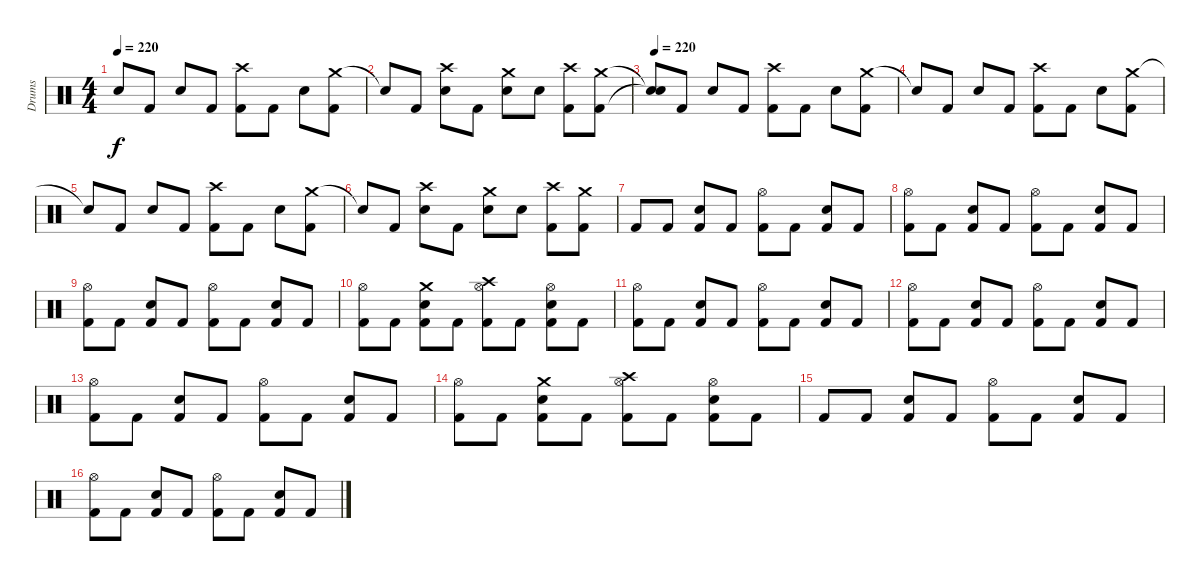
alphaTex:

\track ("Drums" "Drums") {instrument percussion}
\staff {score}
\articulation defaults
\ts (4 4)
\tempo 220
\clef neutral
\ks c "Snare (hit)"{t}.8{dy f} "Kick (hit) 2".8 "Electric Snare (hit)".8 "Kick (hit) 2".8
("Crash high (hit)" "Kick (hit) 2").8 "Kick (hit) 2".8 "Electric Snare (hit)".8 ("Crash medium (hit)" "Kick (hit) 2").8 |
"Snare (hit)"{t}.8 "Kick (hit) 2".8 ("Crash high (hit)" "Electric Snare (hit)").8 "Kick (hit) 2".8 ("Crash medium (hit)" "Electric Snare (hit)").8 "Electric Snare (hit)".8 ("Crash high (hit)" "Kick (hit) 2").8 ("Crash medium (hit)" "Kick (hit) 2").8 |
\tempo 220
("Snare (hit)"{t} "Snare (hit)"{t}).8 "Kick (hit) 2".8 "Electric Snare (hit)".8 "Kick (hit) 2".8 ("Crash high (hit)" "Kick (hit) 2").8 "Kick (hit) 2".8 "Electric Snare (hit)".8 ("Crash medium (hit)" "Kick (hit) 2").8 |
"Snare (hit)"{t}.8 "Kick (hit) 2".8 "Electric Snare (hit)".8 "Kick (hit) 2".8 ("Crash high (hit)" "Kick (hit) 2").8 "Kick (hit) 2".8 "Electric Snare (hit)".8 ("Crash medium (hit)" "Kick (hit) 2").8 |
"Snare (hit)"{t}.8 "Kick (hit) 2".8 "Electric Snare (hit)".8 "Kick (hit) 2".8 ("Crash high (hit)" "Kick (hit) 2").8 "Kick (hit) 2".8 "Electric Snare (hit)".8 ("Crash medium (hit)" "Kick (hit) 2").8 |
"Snare (hit)"{t}.8 "Kick (hit) 2".8 ("Crash high (hit)" "Electric Snare (hit)").8 "Kick (hit) 2".8 ("Crash medium (hit)" "Electric Snare (hit)").8 "Electric Snare (hit)".8 ("Crash high (hit)" "Kick (hit) 2").8 ("Crash medium (hit)" "Kick (hit) 2").8 |
"Kick (hit) 2".8 "Kick (hit) 2".8 ("Electric Snare (hit)" "Kick (hit) 2").8 "Kick (hit) 2".8 ("Hi-Hat (open)" "Kick (hit) 2").8 "Kick (hit) 2".8 ("Electric Snare (hit)" "Kick (hit) 2").8 "Kick (hit) 2".8 |
("Hi-Hat (open)" "Kick (hit) 2").8 "Kick (hit) 2".8 ("Electric Snare (hit)" "Kick (hit) 2").8 "Kick (hit) 2".8 ("Hi-Hat (open)" "Kick (hit) 2").8 "Kick (hit) 2".8 ("Electric Snare (hit)" "Kick (hit) 2").8 "Kick (hit) 2".8 |
("Hi-Hat (open)" "Kick (hit) 2").8 "Kick (hit) 2".8 ("Electric Snare (hit)" "Kick (hit) 2").8 "Kick (hit) 2".8 ("Hi-Hat (open)" "Kick (hit) 2").8 "Kick (hit) 2".8 ("Electric Snare (hit)" "Kick (hit) 2").8 "Kick (hit) 2".8 |
("Hi-Hat (open)" "Kick (hit) 2").8 "Kick (hit) 2".8 ("Crash medium (hit)" "Electric Snare (hit)" "Kick (hit) 2").8 "Kick (hit) 2".8 ("Crash high (hit)" "Hi-Hat (open)" "Kick (hit) 2").8 "Kick (hit) 2".8 ("Hi-Hat (open)" "Electric Snare (hit)" "Kick (hit) 2").8 "Kick (hit) 2".8 |
("Hi-Hat (open)" "Kick (hit) 2").8 "Kick (hit) 2".8 ("Electric Snare (hit)" "Kick (hit) 2").8 "Kick (hit) 2".8 ("Hi-Hat (open)" "Kick (hit) 2").8 "Kick (hit) 2".8 ("Electric Snare (hit)" "Kick (hit) 2").8 "Kick (hit) 2".8 |
("Hi-Hat (open)" "Kick (hit) 2").8 "Kick (hit) 2".8 ("Electric Snare (hit)" "Kick (hit) 2").8 "Kick (hit) 2".8 ("Hi-Hat (open)" "Kick (hit) 2").8 "Kick (hit) 2".8 ("Electric Snare (hit)" "Kick (hit) 2").8 "Kick (hit) 2".8 |
("Hi-Hat (open)" "Kick (hit) 2").8 "Kick (hit) 2".8 ("Electric Snare (hit)" "Kick (hit) 2").8 "Kick (hit) 2".8 ("Hi-Hat (open)" "Kick (hit) 2").8 "Kick (hit) 2".8 ("Electric Snare (hit)" "Kick (hit) 2").8 "Kick (hit) 2".8 |
("Hi-Hat (open)" "Kick (hit) 2").8 "Kick (hit) 2".8 ("Crash medium (hit)" "Electric Snare (hit)" "Kick (hit) 2").8 "Kick (hit) 2".8 ("Crash high (hit)" "Hi-Hat (open)" "Kick (hit) 2").8 "Kick (hit) 2".8 ("Hi-Hat (open)" "Electric Snare (hit)" "Kick (hit) 2").8 "Kick (hit) 2".8 |
"Kick (hit) 2".8 "Kick (hit) 2".8 ("Electric Snare (hit)" "Kick (hit) 2").8 "Kick (hit) 2".8 ("Hi-Hat (open)" "Kick (hit) 2").8 "Kick (hit) 2".8 ("Electric Snare (hit)" "Kick (hit) 2").8 "Kick (hit) 2".8 |
("Hi-Hat (open)" "Kick (hit) 2").8 "Kick (hit) 2".8 ("Electric Snare (hit)" "Kick (hit) 2").8 "Kick (hit) 2".8 ("Hi-Hat (open)" "Kick (hit) 2").8 "Kick (hit) 2".8 ("Electric Snare (hit)" "Kick (hit) 2").8 "Kick (hit) 2".8
